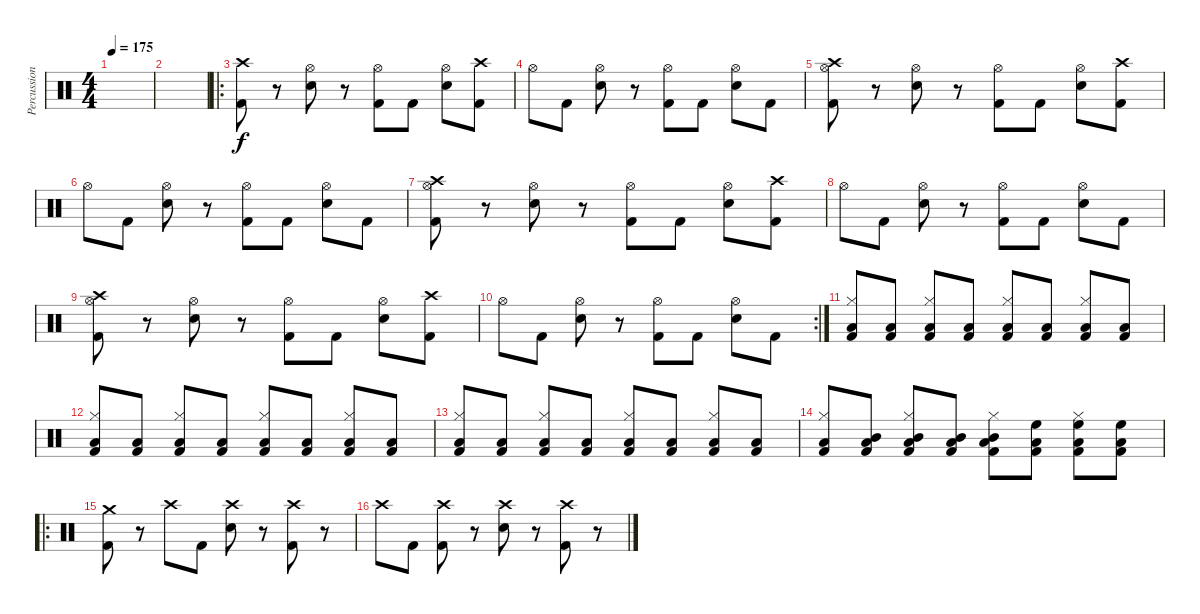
\track ("Percussion" "Percussion") {instrument percussion}
\staff {score}
\articulation defaults
\ts (4 4)
\tempo 175
\clef neutral
\ks c
|
|
\ro
("Crash high (hit)" "Kick (hit) 2").8 r.8 ("Hi-Hat (open)" "Snare (hit) 2").8 r.8 ("Hi-Hat (open)" "Kick (hit) 2").8 "Kick (hit) 2".8 ("Hi-Hat (open)" "Snare (hit) 2").8 ("Crash high (hit)" "Kick (hit) 2").8 |
"Hi-Hat (open)".8 "Kick (hit) 2".8 ("Hi-Hat (open)" "Snare (hit) 2").8 r.8 ("Hi-Hat (open)" "Kick (hit) 2").8 "Kick (hit) 2".8 ("Hi-Hat (open)" "Snare (hit) 2").8 "Kick (hit) 2".8 |
("Crash high (hit)" "Hi-Hat (open)" "Kick (hit) 2").8 r.8 ("Hi-Hat (open)" "Snare (hit) 2").8 r.8 ("Hi-Hat (open)" "Kick (hit) 2").8 "Kick (hit) 2".8 ("Hi-Hat (open)" "Snare (hit) 2").8 ("Crash high (hit)" "Kick (hit) 2").8 |
"Hi-Hat (open)".8 "Kick (hit) 2".8 ("Hi-Hat (open)" "Snare (hit) 2").8 r.8 ("Hi-Hat (open)" "Kick (hit) 2").8 "Kick (hit) 2".8 ("Hi-Hat (open)" "Snare (hit) 2").8 "Kick (hit) 2".8 |
("Crash high (hit)" "Hi-Hat (open)" "Kick (hit) 2").8 r.8 ("Hi-Hat (open)" "Snare (hit) 2").8 r.8 ("Hi-Hat (open)" "Kick (hit) 2").8 "Kick (hit) 2".8 ("Hi-Hat (open)" "Snare (hit) 2").8 ("Crash high (hit)" "Kick (hit) 2").8 |
"Hi-Hat (open)".8 "Kick (hit) 2".8 ("Hi-Hat (open)" "Snare (hit) 2").8 r.8 ("Hi-Hat (open)" "Kick (hit) 2").8 "Kick (hit) 2".8 ("Hi-Hat (open)" "Snare (hit) 2").8 "Kick (hit) 2".8 |
("Crash high (hit)" "Hi-Hat (open)" "Kick (hit) 2").8 r.8 ("Hi-Hat (open)" "Snare (hit) 2").8 r.8 ("Hi-Hat (open)" "Kick (hit) 2").8 "Kick (hit) 2".8 ("Hi-Hat (open)" "Snare (hit) 2").8 ("Crash high (hit)" "Kick (hit) 2").8 |
\rc 2 "Hi-Hat (open)".8 "Kick (hit) 2".8
("Hi-Hat (open)" "Snare (hit) 2").8 r.8 ("Hi-Hat (open)" "Kick (hit) 2").8 "Kick (hit) 2".8 ("Hi-Hat (open)" "Snare (hit) 2").8 "Kick (hit) 2".8 |
("Hi-Hat (closed)" "Low Floor Tom (hit)" "Kick (hit) 2").8 ("Low Floor Tom (hit)" "Kick (hit) 2").8 ("Hi-Hat (closed)" "Low Floor Tom (hit)" "Kick (hit) 2").8 ("Low Floor Tom (hit)" "Kick (hit) 2").8 ("Hi-Hat (closed)" "Low Floor Tom (hit)" "Kick (hit) 2").8 ("Low Floor Tom (hit)" "Kick (hit) 2").8 ("Hi-Hat (closed)" "Low Floor Tom (hit)" "Kick (hit) 2").8 ("Low Floor Tom (hit)" "Kick (hit) 2").8 |
("Hi-Hat (closed)" "Low Floor Tom (hit)" "Kick (hit) 2").8 ("Low Floor Tom (hit)" "Kick (hit) 2").8 ("Hi-Hat (closed)" "Low Floor Tom (hit)" "Kick (hit) 2").8 ("Low Floor Tom (hit)" "Kick (hit) 2").8 ("Hi-Hat (closed)" "Low Floor Tom (hit)" "Kick (hit) 2").8 ("Low Floor Tom (hit)" "Kick (hit) 2").8 ("Hi-Hat (closed)" "Low Floor Tom (hit)" "Kick (hit) 2").8 ("Low Floor Tom (hit)" "Kick (hit) 2").8 |
("Hi-Hat (closed)" "Low Tom (hit)" "Kick (hit) 2").8 ("Low Tom (hit)" "Kick (hit) 2").8 ("Hi-Hat (closed)" "Low Tom (hit)" "Kick (hit) 2").8 ("Low Tom (hit)" "Kick (hit) 2").8 ("Hi-Hat (closed)" "Low Tom (hit)" "Kick (hit) 2").8 ("Low Tom (hit)" "Kick (hit) 2").8 ("Hi-Hat (closed)" "Low Tom (hit)" "Kick (hit) 2").8 ("Low Tom (hit)" "Kick (hit) 2").8 |
("Hi-Hat (closed)" "Low Tom (hit)" "Kick (hit) 2").8 ("Mid Tom (hit)" "Low Tom (hit)" "Kick (hit) 2").8 ("Hi-Hat (closed)" "Mid Tom (hit)" "Low Tom (hit)" "Kick (hit) 2").8 ("Mid Tom (hit)" "Low Tom (hit)" "Kick (hit) 2").8 ("Hi-Hat (closed)" "Mid Tom (hit)" "Low Tom (hit)" "Kick (hit) 2").8 ("High Floor Tom (hit)" "Low Tom (hit)" "Kick (hit) 2").8 ("Hi-Hat (closed)" "High Floor Tom (hit)" "Low Tom (hit)" "Kick (hit) 2").8 ("High Floor Tom (hit)" "Low Tom (hit)" "Kick (hit) 2").8 |
\ro
("Crash medium (hit)" "Kick (hit) 2").8 r.8 "Crash high (hit)".8 "Kick (hit) 2".8 ("Crash high (hit)" "Snare (hit) 2").8 r.8 ("Crash high (hit)" "Kick (hit) 2").8 r.8 |
"Crash high (hit)".8 "Kick (hit) 2".8 ("Crash high (hit)" "Kick (hit) 2").8 r.8 ("Crash high (hit)" "Snare (hit) 2").8 r.8 ("Crash high (hit)" "Kick (hit) 2").8 r.8
